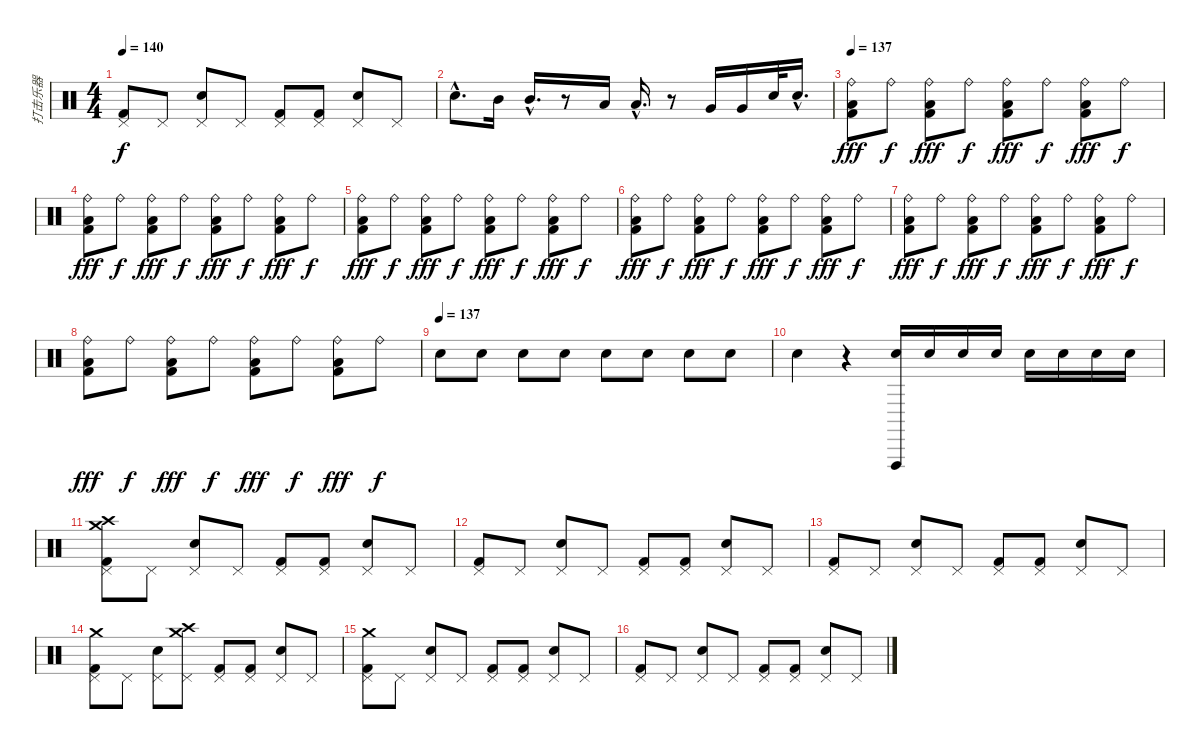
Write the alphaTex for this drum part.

\track ("打击乐器" "打击乐器") {instrument percussion}
\staff {score}
\articulation defaults
\ts (4 4)
\tempo 140
\clef neutral
\ks c
("Pedal Hi-Hat (hit)" "Kick (hit) 2").8{dy f} "Pedal Hi-Hat (hit)".8 ("Snare (hit) 2" "Pedal Hi-Hat (hit)").8 "Pedal Hi-Hat (hit)".8 ("Pedal Hi-Hat (hit)" "Kick (hit) 2").8 ("Pedal Hi-Hat (hit)" "Kick (hit) 2").8 ("Snare (hit) 2" "Pedal Hi-Hat (hit)").8 "Pedal Hi-Hat (hit)".8 |
"Snare (hit) 2"{hac}.8{d} "Mid Tom (hit)".16 "Mid Tom (hit)"{hac}.16{d} r.8 "Low Tom (hit)".16 "Low Tom (hit)"{hac}.16{d} r.8 "Very Low Tom (hit)".16 "Very Low Tom (hit)".16 "Electric Snare (hit)".32 "Snare (hit) 2"{hac}.16{d} |
\tempo 140
\tempo 137
("Ride (bell)" "Kick (hit) 2" "Low Tom (hit)").8{dy fff} "Ride (bell)".8{dy f} ("Ride (bell)" "Kick (hit) 2" "Low Tom (hit)").8{dy fff} "Ride (bell)".8{dy f} ("Ride (bell)" "Kick (hit) 2" "Low Tom (hit)").8{dy fff} "Ride (bell)".8{dy f} ("Ride (bell)" "Kick (hit) 2" "Low Tom (hit)").8{dy fff} "Ride (bell)".8{dy f} |
("Ride (bell)" "Kick (hit) 2" "Low Tom (hit)").8{dy fff} "Ride (bell)".8{dy f} ("Ride (bell)" "Kick (hit) 2" "Low Tom (hit)").8{dy fff} "Ride (bell)".8{dy f} ("Ride (bell)" "Kick (hit) 2" "Low Tom (hit)").8{dy fff} "Ride (bell)".8{dy f} ("Ride (bell)" "Kick (hit) 2" "Low Tom (hit)").8{dy fff} "Ride (bell)".8{dy f} |
("Ride (bell)" "Kick (hit) 2" "Low Tom (hit)").8{dy fff} "Ride (bell)".8{dy f} ("Ride (bell)" "Kick (hit) 2" "Low Tom (hit)").8{dy fff} "Ride (bell)".8{dy f} ("Ride (bell)" "Kick (hit) 2" "Low Tom (hit)").8{dy fff} "Ride (bell)".8{dy f} ("Ride (bell)" "Kick (hit) 2" "Low Tom (hit)").8{dy fff} "Ride (bell)".8{dy f} |
("Ride (bell)" "Kick (hit) 2" "Low Tom (hit)").8{dy fff} "Ride (bell)".8{dy f} ("Ride (bell)" "Kick (hit) 2" "Low Tom (hit)").8{dy fff} "Ride (bell)".8{dy f} ("Ride (bell)" "Kick (hit) 2" "Low Tom (hit)").8{dy fff} "Ride (bell)".8{dy f} ("Ride (bell)" "Kick (hit) 2" "Low Tom (hit)").8{dy fff} "Ride (bell)".8{dy f} |
("Ride (bell)" "Kick (hit) 2" "Low Tom (hit)").8{dy fff} "Ride (bell)".8{dy f} ("Ride (bell)" "Kick (hit) 2" "Low Tom (hit)").8{dy fff} "Ride (bell)".8{dy f} ("Ride (bell)" "Kick (hit) 2" "Low Tom (hit)").8{dy fff} "Ride (bell)".8{dy f} ("Ride (bell)" "Kick (hit) 2" "Low Tom (hit)").8{dy fff} "Ride (bell)".8{dy f} |
("Ride (bell)" "Kick (hit) 2" "Low Tom (hit)").8{dy fff} "Ride (bell)".8{dy f} ("Ride (bell)" "Kick (hit) 2" "Low Tom (hit)").8{dy fff} "Ride (bell)".8{dy f} ("Ride (bell)" "Kick (hit) 2" "Low Tom (hit)").8{dy fff} "Ride (bell)".8{dy f} ("Ride (bell)" "Kick (hit) 2" "Low Tom (hit)").8{dy fff} "Ride (bell)".8{dy f} |
\tempo (137)
"Snare (hit) 2".8 "Snare (hit) 2".8 "Snare (hit) 2".8 "Snare (hit) 2".8 "Snare (hit) 2".8 "Snare (hit) 2".8 "Snare (hit) 2".8 "Snare (hit) 2".8 |
"Snare (hit) 2".4 r.4 ("Vibraslap (hit)" "Electric Snare (hit)").16 "Electric Snare (hit)".16 "Electric Snare (hit)".16 "Electric Snare (hit)".16 "Electric Snare (hit)".16 "Electric Snare (hit)".16 "Snare (hit) 2".16 "Electric Snare (hit)".16 |
("Crash high (hit)" "Crash medium (hit)" "Pedal Hi-Hat (hit)" "Kick (hit) 2").8 "Pedal Hi-Hat (hit)".8 ("Snare (hit) 2" "Pedal Hi-Hat (hit)").8 "Pedal Hi-Hat (hit)".8 ("Pedal Hi-Hat (hit)" "Kick (hit) 2").8 ("Pedal Hi-Hat (hit)" "Kick (hit) 2").8 ("Snare (hit) 2" "Pedal Hi-Hat (hit)").8 "Pedal Hi-Hat (hit)".8 |
("Pedal Hi-Hat (hit)" "Kick (hit) 2").8 "Pedal Hi-Hat (hit)".8 ("Snare (hit) 2" "Pedal Hi-Hat (hit)").8 "Pedal Hi-Hat (hit)".8 ("Pedal Hi-Hat (hit)" "Kick (hit) 2").8 ("Pedal Hi-Hat (hit)" "Kick (hit) 2").8 ("Snare (hit) 2" "Pedal Hi-Hat (hit)").8 "Pedal Hi-Hat (hit)".8 |
("Pedal Hi-Hat (hit)" "Kick (hit) 2").8 "Pedal Hi-Hat (hit)".8 ("Snare (hit) 2" "Pedal Hi-Hat (hit)").8 "Pedal Hi-Hat (hit)".8 ("Pedal Hi-Hat (hit)" "Kick (hit) 2").8 ("Pedal Hi-Hat (hit)" "Kick (hit) 2").8 ("Snare (hit) 2" "Pedal Hi-Hat (hit)").8 "Pedal Hi-Hat (hit)".8 |
("Crash medium (hit)" "Pedal Hi-Hat (hit)" "Kick (hit) 2").8 "Pedal Hi-Hat (hit)".8 ("Snare (hit) 2" "Pedal Hi-Hat (hit)").8 ("Crash medium (hit)" "Crash high (hit)" "Pedal Hi-Hat (hit)").8 ("Pedal Hi-Hat (hit)" "Kick (hit) 2").8 ("Pedal Hi-Hat (hit)" "Kick (hit) 2").8 ("Snare (hit) 2" "Pedal Hi-Hat (hit)").8 "Pedal Hi-Hat (hit)".8 |
("Crash medium (hit)" "Pedal Hi-Hat (hit)" "Kick (hit) 2").8 "Pedal Hi-Hat (hit)".8 ("Snare (hit) 2" "Pedal Hi-Hat (hit)").8 "Pedal Hi-Hat (hit)".8 ("Pedal Hi-Hat (hit)" "Kick (hit) 2").8 ("Pedal Hi-Hat (hit)" "Kick (hit) 2").8 ("Snare (hit) 2" "Pedal Hi-Hat (hit)").8 "Pedal Hi-Hat (hit)".8 |
("Pedal Hi-Hat (hit)" "Kick (hit) 2").8 "Pedal Hi-Hat (hit)".8 ("Snare (hit) 2" "Pedal Hi-Hat (hit)").8 "Pedal Hi-Hat (hit)".8 ("Pedal Hi-Hat (hit)" "Kick (hit) 2").8 ("Pedal Hi-Hat (hit)" "Kick (hit) 2").8 ("Snare (hit) 2" "Pedal Hi-Hat (hit)").8 "Pedal Hi-Hat (hit)".8
